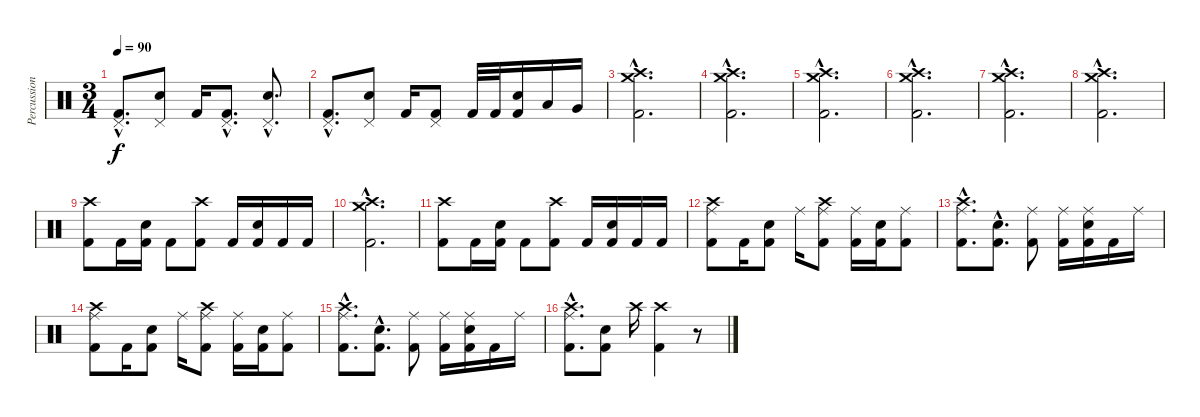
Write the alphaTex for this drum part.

\track ("Percussion" "Percussion") {instrument percussion}
\staff {score}
\articulation defaults
\ts (3 4)
\tempo 90
\clef neutral
\ks c
("Kick (hit) 2"{hac} "Pedal Hi-Hat (hit)"{hac}).8{d dy f} ("Electric Snare (hit)" "Pedal Hi-Hat (hit)").8 "Kick (hit) 2".16 ("Kick (hit) 2"{hac} "Pedal Hi-Hat (hit)"{hac}).8{d} ("Electric Snare (hit)"{hac} "Pedal Hi-Hat (hit)"{hac}).8{d} |
("Kick (hit) 2"{hac} "Pedal Hi-Hat (hit)"{hac}).8{d} ("Electric Snare (hit)" "Pedal Hi-Hat (hit)").8 "Kick (hit) 2".16 ("Kick (hit) 2" "Pedal Hi-Hat (hit)").8 "Kick (hit) 2".32 "Kick (hit) 2".32 ("Kick (hit) 2" "Electric Snare (hit)").16 "Low Tom (hit)".16 "Very Low Tom (hit)".16 |
("Kick (hit) 2"{hac} "Crash high (hit)"{hac} "Crash medium (hit)"{hac}).2{d} |
("Kick (hit) 2"{hac} "Crash high (hit)"{hac} "Crash medium (hit)"{hac}).2{d} |
("Kick (hit) 2"{hac} "Crash high (hit)"{hac} "Crash medium (hit)"{hac}).2{d} |
("Kick (hit) 2"{hac} "Crash high (hit)"{hac} "Crash medium (hit)"{hac}).2{d} |
("Kick (hit) 2"{hac} "Crash high (hit)"{hac} "Crash medium (hit)"{hac}).2{d} |
("Kick (hit) 2"{hac} "Crash high (hit)"{hac} "Crash medium (hit)"{hac}).2{d} |
("Kick (hit) 2" "Crash high (hit)").8 "Kick (hit) 2".16 ("Kick (hit) 2" "Electric Snare (hit)").16 "Kick (hit) 2".8 ("Kick (hit) 2" "Crash high (hit)").8 "Kick (hit) 2".16 ("Kick (hit) 2" "Electric Snare (hit)").16 "Kick (hit) 2".16 "Kick (hit) 2".16 |
("Kick (hit) 2"{hac} "Crash high (hit)"{hac} "Crash medium (hit)"{hac}).2{d} |
("Kick (hit) 2" "Crash high (hit)").8 "Kick (hit) 2".16 ("Kick (hit) 2" "Electric Snare (hit)").16 "Kick (hit) 2".8 ("Kick (hit) 2" "Crash high (hit)").8 "Kick (hit) 2".16 ("Kick (hit) 2" "Electric Snare (hit)").16 "Kick (hit) 2".16 "Kick (hit) 2".16 |
("Kick (hit) 2" "Crash high (hit)" "Ride (middle)").8 "Kick (hit) 2".16 ("Kick (hit) 2" "Electric Snare (hit)").8 "Ride (middle)".16 ("Kick (hit) 2" "Crash high (hit)" "Ride (middle)").8 ("Kick (hit) 2" "Ride (middle)").16 ("Kick (hit) 2" "Electric Snare (hit)").16 ("Kick (hit) 2" "Ride (middle)").8 |
("Kick (hit) 2"{hac} "Crash high (hit)"{hac} "Ride (middle)"{hac}).8{d} ("Kick (hit) 2"{hac} "Electric Snare (hit)"{hac}).8{d} ("Kick (hit) 2" "Ride (middle)").8 ("Kick (hit) 2" "Ride (middle)").16 ("Kick (hit) 2" "Electric Snare (hit)" "Ride (middle)").16 "Kick (hit) 2".16 "Ride (middle)".16 |
("Kick (hit) 2" "Crash high (hit)" "Ride (middle)").8 "Kick (hit) 2".16 ("Kick (hit) 2" "Electric Snare (hit)").8 "Ride (middle)".16 ("Kick (hit) 2" "Crash high (hit)" "Ride (middle)").8 ("Kick (hit) 2" "Ride (middle)").16 ("Kick (hit) 2" "Electric Snare (hit)").16 ("Kick (hit) 2" "Ride (middle)").8 |
("Kick (hit) 2"{hac} "Crash high (hit)"{hac} "Ride (middle)"{hac}).8{d} ("Kick (hit) 2"{hac} "Electric Snare (hit)"{hac}).8{d} ("Kick (hit) 2" "Ride (middle)").8 ("Kick (hit) 2" "Ride (middle)").16 ("Kick (hit) 2" "Electric Snare (hit)" "Ride (middle)").16 "Kick (hit) 2".16 "Ride (middle)".16 |
("Kick (hit) 2"{hac} "Crash high (hit)"{hac} "Ride (middle)"{hac}).8{d} ("Kick (hit) 2" "Electric Snare (hit)").8 "Crash high (hit)".16 ("Kick (hit) 2" "Crash high (hit)").4 r.8{volume 0}
